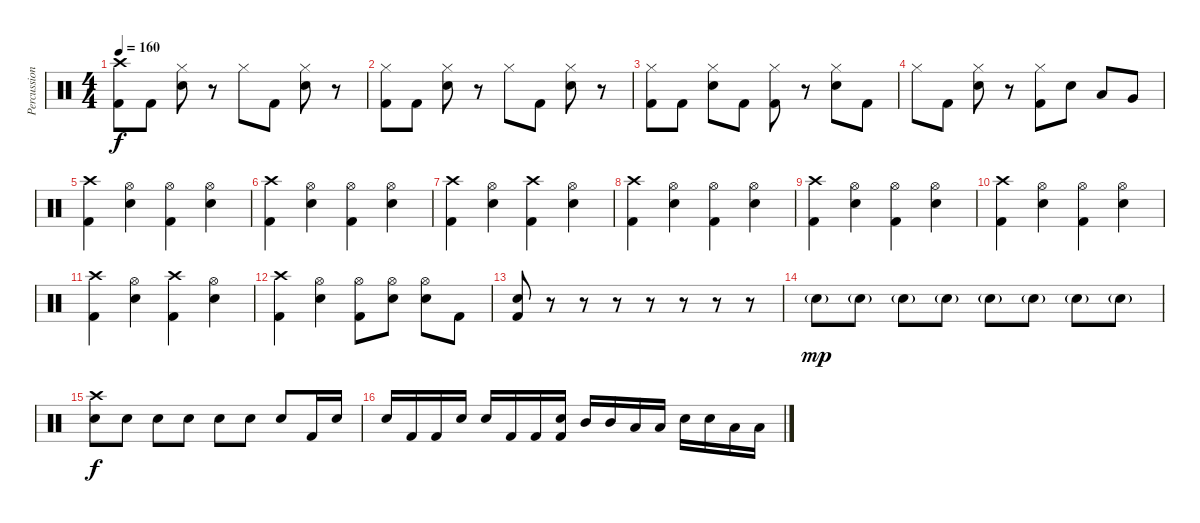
\track ("Percussion" "Percussion") {instrument percussion}
\staff {score}
\articulation defaults
\ts (4 4)
\tempo 160
\clef neutral
\ks c
("Crash high (hit)" "Kick (hit) 2").8{dy f} "Kick (hit) 2".8 ("Hi-Hat (closed)" "Electric Snare (hit)").8 r.8 "Hi-Hat (closed)".8 "Kick (hit) 2".8 ("Hi-Hat (closed)" "Electric Snare (hit)").8 r.8 |
("Hi-Hat (closed)" "Kick (hit) 2").8 "Kick (hit) 2".8 ("Hi-Hat (closed)" "Electric Snare (hit)").8 r.8 "Hi-Hat (closed)".8 "Kick (hit) 2".8 ("Hi-Hat (closed)" "Electric Snare (hit)").8 r.8 |
("Hi-Hat (closed)" "Kick (hit) 2").8 "Kick (hit) 2".8 ("Hi-Hat (closed)" "Electric Snare (hit)").8 "Kick (hit) 2".8 ("Hi-Hat (closed)" "Kick (hit) 2").8 r.8 ("Hi-Hat (closed)" "Electric Snare (hit)").8 "Kick (hit) 2".8 |
"Hi-Hat (closed)".8 "Kick (hit) 2".8 ("Hi-Hat (closed)" "Electric Snare (hit)").8 r.8 ("Hi-Hat (closed)" "Kick (hit) 2").8 "Electric Snare (hit)".8 "Low Tom (hit)".8 "Very Low Tom (hit)".8 |
("Crash high (hit)" "Kick (hit) 2").4 ("Hi-Hat (open)" "Electric Snare (hit)").4 ("Hi-Hat (open)" "Kick (hit) 2").4 ("Hi-Hat (open)" "Electric Snare (hit)").4 |
("Crash high (hit)" "Kick (hit) 2").4 ("Hi-Hat (open)" "Electric Snare (hit)").4 ("Hi-Hat (open)" "Kick (hit) 2").4 ("Hi-Hat (open)" "Electric Snare (hit)").4 |
("Crash high (hit)" "Kick (hit) 2").4 ("Hi-Hat (open)" "Electric Snare (hit)").4 ("Crash high (hit)" "Kick (hit) 2").4 ("Hi-Hat (open)" "Electric Snare (hit)").4 |
("Crash high (hit)" "Kick (hit) 2").4 ("Hi-Hat (open)" "Electric Snare (hit)").4 ("Hi-Hat (open)" "Kick (hit) 2").4 ("Hi-Hat (open)" "Electric Snare (hit)").4 |
("Crash high (hit)" "Kick (hit) 2").4 ("Hi-Hat (open)" "Electric Snare (hit)").4 ("Hi-Hat (open)" "Kick (hit) 2").4 ("Hi-Hat (open)" "Electric Snare (hit)").4 |
("Crash high (hit)" "Kick (hit) 2").4 ("Hi-Hat (open)" "Electric Snare (hit)").4 ("Hi-Hat (open)" "Kick (hit) 2").4 ("Hi-Hat (open)" "Electric Snare (hit)").4 |
("Crash high (hit)" "Kick (hit) 2").4 ("Hi-Hat (open)" "Electric Snare (hit)").4 ("Crash high (hit)" "Kick (hit) 2").4 ("Hi-Hat (open)" "Electric Snare (hit)").4 |
("Crash high (hit)" "Kick (hit) 2").4 ("Hi-Hat (open)" "Electric Snare (hit)").4 ("Hi-Hat (open)" "Kick (hit) 2").8 ("Hi-Hat (open)" "Electric Snare (hit)").8 ("Hi-Hat (open)" "Electric Snare (hit)").8 "Kick (hit) 2".8 |
("Electric Snare (hit)" "Kick (hit) 2").8 r.8 r.8 r.8 r.8 r.8 r.8 r.8 |
"Electric Snare (hit)"{g}.8{dy mp} "Electric Snare (hit)"{g}.8 "Electric Snare (hit)"{g}.8 "Electric Snare (hit)"{g}.8 "Electric Snare (hit)"{g}.8 "Electric Snare (hit)"{g}.8 "Electric Snare (hit)"{g}.8 "Electric Snare (hit)"{g}.8 |
("Crash high (hit)" "Electric Snare (hit)").8{dy f} "Electric Snare (hit)".8 "Electric Snare (hit)".8 "Electric Snare (hit)".8 "Electric Snare (hit)".8 "Electric Snare (hit)".8 "Electric Snare (hit)".8 "Kick (hit) 2".16 "Electric Snare (hit)".16 |
"Electric Snare (hit)".16 "Kick (hit) 2".16 "Kick (hit) 2".16 "Electric Snare (hit)".16 "Electric Snare (hit)".16 "Kick (hit) 2".16 "Kick (hit) 2".16 ("Electric Snare (hit)" "Kick (hit) 2").16 "Mid Tom (hit)".16 "Mid Tom (hit)".16 "Low Tom (hit)".16 "Low Tom (hit)".16 "Electric Snare (hit)".16 "Electric Snare (hit)".16 "Low Tom (hit)".16 "Low Tom (hit)".16
